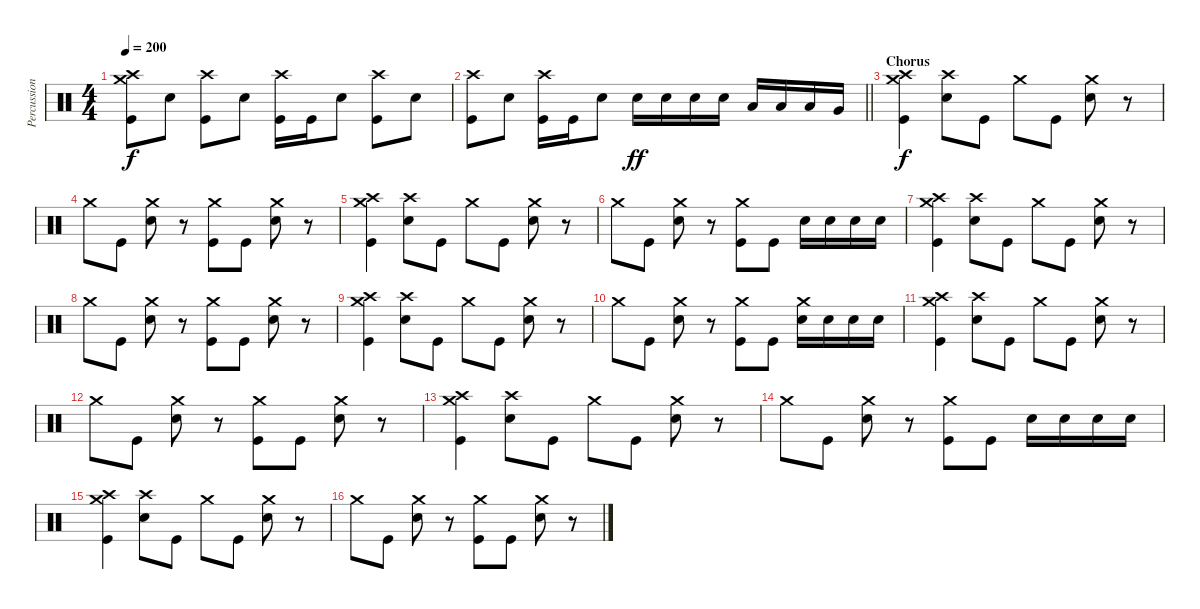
\track ("Percussion" "Percussion") {instrument percussion}
\staff {score}
\articulation defaults
\ts (4 4)
\tempo 200
\clef neutral
\ks c
("Crash high (hit)" "Kick (hit)" "Crash medium (hit)").8{dy f} "Snare (hit) 2".8 ("Crash high (hit)" "Kick (hit)").8 "Snare (hit) 2".8 ("Crash high (hit)" "Kick (hit)").16 "Kick (hit)".16 "Snare (hit) 2".8 ("Crash high (hit)" "Kick (hit)").8 "Snare (hit) 2".8 |
\barLineRight lightlight
("Crash high (hit)" "Kick (hit)").8 "Snare (hit) 2".8 ("Crash high (hit)" "Kick (hit)").16 "Kick (hit)".16 "Snare (hit) 2".8 "Snare (hit) 2".16{dy ff} "Snare (hit) 2".16 "Snare (hit) 2".16 "Snare (hit) 2".16 "Low Tom (hit)".16 "Low Tom (hit)".16 "Low Tom (hit)".16 "Very Low Tom (hit)".16 |
\section ("" "Chorus")
("Kick (hit)" "Crash medium (hit)" "Crash high (hit)").4{dy f} ("Snare (hit) 2" "Crash high (hit)").8 "Kick (hit)".8 "Crash medium (hit)".8 "Kick (hit)".8 ("Crash medium (hit)" "Snare (hit) 2").8 r.8 |
"Crash medium (hit)".8 "Kick (hit)".8 ("Crash medium (hit)" "Snare (hit) 2").8 r.8 ("Kick (hit)" "Crash medium (hit)").8 "Kick (hit)".8 ("Snare (hit) 2" "Crash medium (hit)").8 r.8 |
("Kick (hit)" "Crash medium (hit)" "Crash high (hit)").4 ("Snare (hit) 2" "Crash high (hit)").8 "Kick (hit)".8 "Crash medium (hit)".8 "Kick (hit)".8 ("Crash medium (hit)" "Snare (hit) 2").8 r.8 |
"Crash medium (hit)".8 "Kick (hit)".8 ("Crash medium (hit)" "Snare (hit) 2").8 r.8 ("Kick (hit)" "Crash medium (hit)").8 "Kick (hit)".8 "Snare (hit) 2".16 "Snare (hit) 2".16 "Snare (hit) 2".16 "Snare (hit) 2".16 |
("Kick (hit)" "Crash medium (hit)" "Crash high (hit)").4 ("Snare (hit) 2" "Crash high (hit)").8 "Kick (hit)".8 "Crash medium (hit)".8 "Kick (hit)".8 ("Crash medium (hit)" "Snare (hit) 2").8 r.8 |
"Crash medium (hit)".8 "Kick (hit)".8 ("Crash medium (hit)" "Snare (hit) 2").8 r.8 ("Kick (hit)" "Crash medium (hit)").8 "Kick (hit)".8 ("Snare (hit) 2" "Crash medium (hit)").8 r.8 |
("Kick (hit)" "Crash medium (hit)" "Crash high (hit)").4 ("Snare (hit) 2" "Crash high (hit)").8 "Kick (hit)".8 "Crash medium (hit)".8 "Kick (hit)".8 ("Crash medium (hit)" "Snare (hit) 2").8 r.8 |
"Crash medium (hit)".8 "Kick (hit)".8 ("Crash medium (hit)" "Snare (hit) 2").8 r.8 ("Kick (hit)" "Crash medium (hit)").8 "Kick (hit)".8 ("Snare (hit) 2" "Crash medium (hit)").16 "Snare (hit) 2".16 "Snare (hit) 2".16 "Snare (hit) 2".16 |
("Kick (hit)" "Crash medium (hit)" "Crash high (hit)").4 ("Snare (hit) 2" "Crash high (hit)").8 "Kick (hit)".8 "Crash medium (hit)".8 "Kick (hit)".8 ("Crash medium (hit)" "Snare (hit) 2").8 r.8 |
"Crash medium (hit)".8 "Kick (hit)".8 ("Crash medium (hit)" "Snare (hit) 2").8 r.8 ("Kick (hit)" "Crash medium (hit)").8 "Kick (hit)".8 ("Snare (hit) 2" "Crash medium (hit)").8 r.8 |
("Kick (hit)" "Crash medium (hit)" "Crash high (hit)").4 ("Snare (hit) 2" "Crash high (hit)").8 "Kick (hit)".8 "Crash medium (hit)".8 "Kick (hit)".8 ("Crash medium (hit)" "Snare (hit) 2").8 r.8 |
"Crash medium (hit)".8 "Kick (hit)".8 ("Crash medium (hit)" "Snare (hit) 2").8 r.8 ("Kick (hit)" "Crash medium (hit)").8 "Kick (hit)".8 "Snare (hit) 2".16 "Snare (hit) 2".16 "Snare (hit) 2".16 "Snare (hit) 2".16 |
("Kick (hit)" "Crash medium (hit)" "Crash high (hit)").4 ("Snare (hit) 2" "Crash high (hit)").8 "Kick (hit)".8 "Crash medium (hit)".8 "Kick (hit)".8 ("Crash medium (hit)" "Snare (hit) 2").8 r.8 |
"Crash medium (hit)".8 "Kick (hit)".8 ("Crash medium (hit)" "Snare (hit) 2").8 r.8 ("Kick (hit)" "Crash medium (hit)").8 "Kick (hit)".8 ("Snare (hit) 2" "Crash medium (hit)").8 r.8
